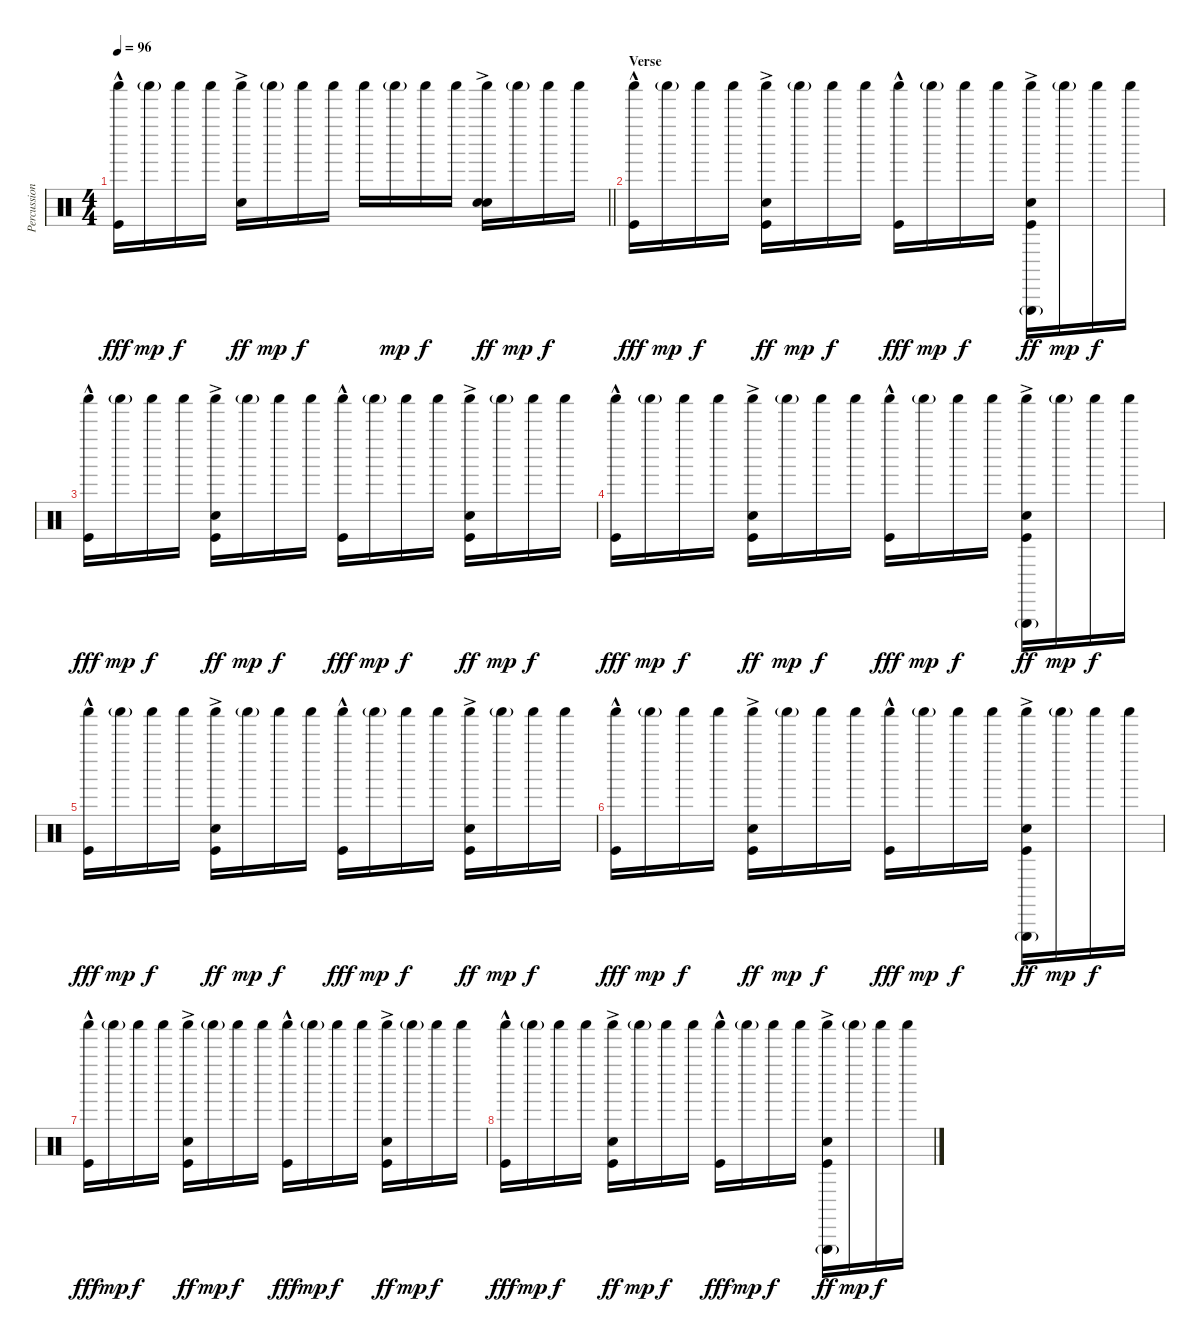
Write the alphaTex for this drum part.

\track ("Percussion" "Percussion") {instrument percussion}
\staff {score}
\articulation defaults
\ts (4 4)
\tempo 96
\clef neutral
\barLineRight lightlight
\ks c
("Shaker (hit)" "Kick (hit)"{hac}).16{dy fff} "Shaker (hit)"{g}.16{dy mp} "Shaker (hit)".16{dy f} "Shaker (hit)".16 ("Shaker (hit)" "Hand Clap (hit)"{ac}).16{dy ff} "Shaker (hit)"{g}.16{dy mp} "Shaker (hit)".16{dy f} "Shaker (hit)".16 "Shaker (hit)".16 "Shaker (hit)"{g}.16{dy mp} "Shaker (hit)".16{dy f} "Shaker (hit)".16 ("Shaker (hit)" "Hand Clap (hit)"{ac} "Snare (hit) 2"{ac}).16{dy ff} "Shaker (hit)"{g}.16{dy mp} "Shaker (hit)".16{dy f} "Shaker (hit)".16 |
\section ("" "Verse")
("Shaker (hit)" "Kick (hit)"{hac}).16{dy fff} "Shaker (hit)"{g}.16{dy mp} "Shaker (hit)".16{dy f} "Shaker (hit)".16 ("Shaker (hit)" "Snare (hit) 2"{ac} "Kick (hit)"{ac}).16{dy ff} "Shaker (hit)"{g}.16{dy mp} "Shaker (hit)".16{dy f} "Shaker (hit)".16 ("Shaker (hit)" "Kick (hit)"{hac}).16{dy fff} "Shaker (hit)"{g}.16{dy mp} "Shaker (hit)".16{dy f} "Shaker (hit)".16 ("Triangle (hit)"{g} "Shaker (hit)" "Snare (hit) 2"{ac} "Kick (hit)"{ac}).16{dy ff} "Shaker (hit)"{g}.16{dy mp} "Shaker (hit)".16{dy f} "Shaker (hit)".16 |
("Shaker (hit)" "Kick (hit)"{hac}).16{dy fff} "Shaker (hit)"{g}.16{dy mp} "Shaker (hit)".16{dy f} "Shaker (hit)".16 ("Shaker (hit)" "Snare (hit) 2"{ac} "Kick (hit)"{ac}).16{dy ff} "Shaker (hit)"{g}.16{dy mp} "Shaker (hit)".16{dy f} "Shaker (hit)".16 ("Shaker (hit)" "Kick (hit)"{hac}).16{dy fff} "Shaker (hit)"{g}.16{dy mp} "Shaker (hit)".16{dy f} "Shaker (hit)".16 ("Shaker (hit)" "Snare (hit) 2"{ac} "Kick (hit)"{ac}).16{dy ff} "Shaker (hit)"{g}.16{dy mp} "Shaker (hit)".16{dy f} "Shaker (hit)".16 |
("Shaker (hit)" "Kick (hit)"{hac}).16{dy fff} "Shaker (hit)"{g}.16{dy mp} "Shaker (hit)".16{dy f} "Shaker (hit)".16 ("Shaker (hit)" "Snare (hit) 2"{ac} "Kick (hit)"{ac}).16{dy ff} "Shaker (hit)"{g}.16{dy mp} "Shaker (hit)".16{dy f} "Shaker (hit)".16 ("Shaker (hit)" "Kick (hit)"{hac}).16{dy fff} "Shaker (hit)"{g}.16{dy mp} "Shaker (hit)".16{dy f} "Shaker (hit)".16 ("Triangle (hit)"{g} "Shaker (hit)" "Snare (hit) 2"{ac} "Kick (hit)"{ac}).16{dy ff} "Shaker (hit)"{g}.16{dy mp} "Shaker (hit)".16{dy f} "Shaker (hit)".16 |
("Shaker (hit)" "Kick (hit)"{hac}).16{dy fff} "Shaker (hit)"{g}.16{dy mp} "Shaker (hit)".16{dy f} "Shaker (hit)".16 ("Shaker (hit)" "Snare (hit) 2"{ac} "Kick (hit)"{ac}).16{dy ff} "Shaker (hit)"{g}.16{dy mp} "Shaker (hit)".16{dy f} "Shaker (hit)".16 ("Shaker (hit)" "Kick (hit)"{hac}).16{dy fff} "Shaker (hit)"{g}.16{dy mp} "Shaker (hit)".16{dy f} "Shaker (hit)".16 ("Shaker (hit)" "Snare (hit) 2"{ac} "Kick (hit)"{ac}).16{dy ff} "Shaker (hit)"{g}.16{dy mp} "Shaker (hit)".16{dy f} "Shaker (hit)".16 |
("Shaker (hit)" "Kick (hit)"{hac}).16{dy fff} "Shaker (hit)"{g}.16{dy mp} "Shaker (hit)".16{dy f} "Shaker (hit)".16 ("Shaker (hit)" "Snare (hit) 2"{ac} "Kick (hit)"{ac}).16{dy ff} "Shaker (hit)"{g}.16{dy mp} "Shaker (hit)".16{dy f} "Shaker (hit)".16 ("Shaker (hit)" "Kick (hit)"{hac}).16{dy fff} "Shaker (hit)"{g}.16{dy mp} "Shaker (hit)".16{dy f} "Shaker (hit)".16 ("Triangle (hit)"{g} "Shaker (hit)" "Snare (hit) 2"{ac} "Kick (hit)"{ac}).16{dy ff} "Shaker (hit)"{g}.16{dy mp} "Shaker (hit)".16{dy f} "Shaker (hit)".16 |
("Shaker (hit)" "Kick (hit)"{hac}).16{dy fff} "Shaker (hit)"{g}.16{dy mp} "Shaker (hit)".16{dy f} "Shaker (hit)".16 ("Shaker (hit)" "Snare (hit) 2"{ac} "Kick (hit)"{ac}).16{dy ff} "Shaker (hit)"{g}.16{dy mp} "Shaker (hit)".16{dy f} "Shaker (hit)".16 ("Shaker (hit)" "Kick (hit)"{hac}).16{dy fff} "Shaker (hit)"{g}.16{dy mp} "Shaker (hit)".16{dy f} "Shaker (hit)".16 ("Shaker (hit)" "Snare (hit) 2"{ac} "Kick (hit)"{ac}).16{dy ff} "Shaker (hit)"{g}.16{dy mp} "Shaker (hit)".16{dy f} "Shaker (hit)".16 |
("Shaker (hit)" "Kick (hit)"{hac}).16{dy fff} "Shaker (hit)"{g}.16{dy mp} "Shaker (hit)".16{dy f} "Shaker (hit)".16 ("Shaker (hit)" "Snare (hit) 2"{ac} "Kick (hit)"{ac}).16{dy ff} "Shaker (hit)"{g}.16{dy mp} "Shaker (hit)".16{dy f} "Shaker (hit)".16 ("Shaker (hit)" "Kick (hit)"{hac}).16{dy fff} "Shaker (hit)"{g}.16{dy mp} "Shaker (hit)".16{dy f} "Shaker (hit)".16 ("Triangle (hit)"{g} "Shaker (hit)" "Snare (hit) 2"{ac} "Kick (hit)"{ac}).16{dy ff} "Shaker (hit)"{g}.16{dy mp} "Shaker (hit)".16{dy f} "Shaker (hit)".16
